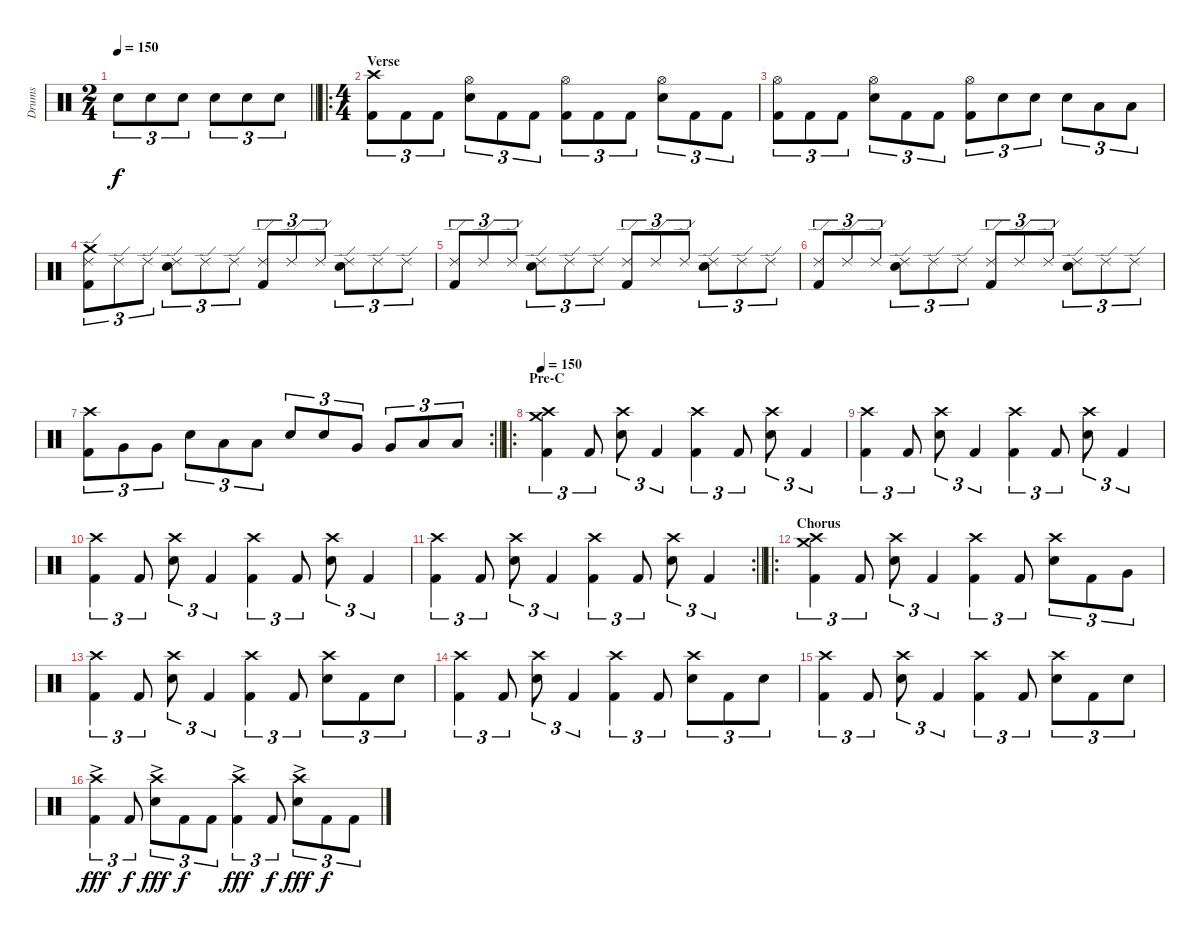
\track ("Drums" "Drums") {instrument percussion}
\staff {score}
\articulation defaults
\ts (2 4)
\tempo 150
\clef neutral
\barLineRight lightlight
\ks c "Electric Snare (hit)".8{tu (3 2) dy f} "Electric Snare (hit)".8{tu (3 2)} "Electric Snare (hit)".8{tu (3 2)} "Electric Snare (hit)".8{tu (3 2)} "Electric Snare (hit)".8{tu (3 2)} "Electric Snare (hit)".8{tu (3 2)}
|
\ro
\ts (4 4)
\section ("" "Verse")
("Crash high (hit)" "Kick (hit) 2").8{tu (3 2)} "Kick (hit) 2".8{tu (3 2)} "Kick (hit) 2".8{tu (3 2)} ("Hi-Hat (open)" "Electric Snare (hit)").8{tu (3 2)} "Kick (hit) 2".8{tu (3 2)} "Kick (hit) 2".8{tu (3 2)} ("Hi-Hat (open)" "Kick (hit) 2").8{tu (3 2)} "Kick (hit) 2".8{tu (3 2)} "Kick (hit) 2".8{tu (3 2)} ("Hi-Hat (open)" "Electric Snare (hit)").8{tu (3 2)} "Kick (hit) 2".8{tu (3 2)} "Kick (hit) 2".8{tu (3 2)} |
("Hi-Hat (open)" "Kick (hit) 2").8{tu (3 2)} "Kick (hit) 2".8{tu (3 2)} "Kick (hit) 2".8{tu (3 2)} ("Hi-Hat (open)" "Electric Snare (hit)").8{tu (3 2)} "Kick (hit) 2".8{tu (3 2)} "Kick (hit) 2".8{tu (3 2)} ("Hi-Hat (open)" "Kick (hit) 2").8{tu (3 2)} "Electric Snare (hit)".8{tu (3 2)} "Electric Snare (hit)".8{tu (3 2)} "Electric Snare (hit)".8{tu (3 2)} "Low Floor Tom (hit)".8{tu (3 2)} "Low Floor Tom (hit)".8{tu (3 2)} |
("Ride (edge) 2" "Crash medium (hit)" "Kick (hit) 2").8{tu (3 2)} "Ride (edge) 2".8{tu (3 2)} "Ride (edge) 2".8{tu (3 2)} ("Ride (edge) 2" "Electric Snare (hit)").8{tu (3 2)} "Ride (edge) 2".8{tu (3 2)} "Ride (edge) 2".8{tu (3 2)} ("Ride (edge) 2" "Kick (hit) 2").8{tu (3 2)} "Ride (edge) 2".8{tu (3 2)} "Ride (edge) 2".8{tu (3 2)} ("Ride (edge) 2" "Electric Snare (hit)").8{tu (3 2)} "Ride (edge) 2".8{tu (3 2)} "Ride (edge) 2".8{tu (3 2)} |
("Ride (edge) 2" "Kick (hit) 2").8{tu (3 2)} "Ride (edge) 2".8{tu (3 2)} "Ride (edge) 2".8{tu (3 2)} ("Ride (edge) 2" "Electric Snare (hit)").8{tu (3 2)} "Ride (edge) 2".8{tu (3 2)} "Ride (edge) 2".8{tu (3 2)} ("Ride (edge) 2" "Kick (hit) 2").8{tu (3 2)} "Ride (edge) 2".8{tu (3 2)} "Ride (edge) 2".8{tu (3 2)} ("Ride (edge) 2" "Electric Snare (hit)").8{tu (3 2)} "Ride (edge) 2".8{tu (3 2)} "Ride (edge) 2".8{tu (3 2)} |
("Ride (edge) 2" "Kick (hit) 2").8{tu (3 2)} "Ride (edge) 2".8{tu (3 2)} "Ride (edge) 2".8{tu (3 2)} ("Ride (edge) 2" "Electric Snare (hit)").8{tu (3 2)} "Ride (edge) 2".8{tu (3 2)} "Ride (edge) 2".8{tu (3 2)} ("Ride (edge) 2" "Kick (hit) 2").8{tu (3 2)} "Ride (edge) 2".8{tu (3 2)} "Ride (edge) 2".8{tu (3 2)} ("Ride (edge) 2" "Electric Snare (hit)").8{tu (3 2)} "Ride (edge) 2".8{tu (3 2)} "Ride (edge) 2".8{tu (3 2)} |
\rc 2
\barLineRight lightlight
("Crash high (hit)" "Kick (hit) 2").8{tu (3 2)} "Very Low Tom (hit)".8{tu (3 2)} "Very Low Tom (hit)".8{tu (3 2)} "Electric Snare (hit)".8{tu (3 2)} "Low Floor Tom (hit)".8{tu (3 2)} "Low Floor Tom (hit)".8{tu (3 2)} "Electric Snare (hit)".8{tu (3 2)} "Electric Snare (hit)".8{tu (3 2)} "Very Low Tom (hit)".8{tu (3 2)} "Very Low Tom (hit)".8{tu (3 2)} "Low Floor Tom (hit)".8{tu (3 2)} "Low Floor Tom (hit)".8{tu (3 2)} |
\ro
\section ("" "Pre-C")
\tempo 150
("Crash medium (hit)" "Crash high (hit)" "Kick (hit) 2").4{tu (3 2)} "Kick (hit) 2".8{tu (3 2)} ("Crash high (hit)" "Electric Snare (hit)").8{tu (3 2)} "Kick (hit) 2".4{tu (3 2)} ("Crash high (hit)" "Kick (hit) 2").4{tu (3 2)} "Kick (hit) 2".8{tu (3 2)} ("Electric Snare (hit)" "Crash high (hit)").8{tu (3 2)} "Kick (hit) 2".4{tu (3 2)} |
("Crash high (hit)" "Kick (hit) 2").4{tu (3 2)} "Kick (hit) 2".8{tu (3 2)} ("Crash high (hit)" "Electric Snare (hit)").8{tu (3 2)} "Kick (hit) 2".4{tu (3 2)} ("Crash high (hit)" "Kick (hit) 2").4{tu (3 2)} "Kick (hit) 2".8{tu (3 2)} ("Electric Snare (hit)" "Crash high (hit)").8{tu (3 2)} "Kick (hit) 2".4{tu (3 2)} |
("Crash high (hit)" "Kick (hit) 2").4{tu (3 2)} "Kick (hit) 2".8{tu (3 2)} ("Crash high (hit)" "Electric Snare (hit)").8{tu (3 2)} "Kick (hit) 2".4{tu (3 2)} ("Crash high (hit)" "Kick (hit) 2").4{tu (3 2)} "Kick (hit) 2".8{tu (3 2)} ("Electric Snare (hit)" "Crash high (hit)").8{tu (3 2)} "Kick (hit) 2".4{tu (3 2)} |
\rc 2
\barLineRight lightlight
("Crash high (hit)" "Kick (hit) 2").4{tu (3 2)} "Kick (hit) 2".8{tu (3 2)} ("Crash high (hit)" "Electric Snare (hit)").8{tu (3 2)} "Kick (hit) 2".4{tu (3 2)} ("Crash high (hit)" "Kick (hit) 2").4{tu (3 2)} "Kick (hit) 2".8{tu (3 2)} ("Electric Snare (hit)" "Crash high (hit)").8{tu (3 2)} "Kick (hit) 2".4{tu (3 2)} |
\ro
\section ("" "Chorus")
("Crash medium (hit)" "Crash high (hit)" "Kick (hit) 2").4{tu (3 2)} "Kick (hit) 2".8{tu (3 2)} ("Crash high (hit)" "Electric Snare (hit)").8{tu (3 2)} "Kick (hit) 2".4{tu (3 2)} ("Crash high (hit)" "Kick (hit) 2").4{tu (3 2)} "Kick (hit) 2".8{tu (3 2)} ("Electric Snare (hit)" "Crash high (hit)").8{tu (3 2)} "Kick (hit) 2".8{tu (3 2)} "Very Low Tom (hit)".8{tu (3 2)} |
("Crash high (hit)" "Kick (hit) 2").4{tu (3 2)} "Kick (hit) 2".8{tu (3 2)} ("Crash high (hit)" "Electric Snare (hit)").8{tu (3 2)} "Kick (hit) 2".4{tu (3 2)} ("Crash high (hit)" "Kick (hit) 2").4{tu (3 2)} "Kick (hit) 2".8{tu (3 2)} ("Electric Snare (hit)" "Crash high (hit)").8{tu (3 2)} "Kick (hit) 2".8{tu (3 2)} "Electric Snare (hit)".8{tu (3 2)} |
("Crash high (hit)" "Kick (hit) 2").4{tu (3 2)} "Kick (hit) 2".8{tu (3 2)} ("Crash high (hit)" "Electric Snare (hit)").8{tu (3 2)} "Kick (hit) 2".4{tu (3 2)} ("Crash high (hit)" "Kick (hit) 2").4{tu (3 2)} "Kick (hit) 2".8{tu (3 2)} ("Electric Snare (hit)" "Crash high (hit)").8{tu (3 2)} "Kick (hit) 2".8{tu (3 2)} "Electric Snare (hit)".8{tu (3 2)} |
("Crash high (hit)" "Kick (hit) 2").4{tu (3 2)} "Kick (hit) 2".8{tu (3 2)} ("Crash high (hit)" "Electric Snare (hit)").8{tu (3 2)} "Kick (hit) 2".4{tu (3 2)} ("Crash high (hit)" "Kick (hit) 2").4{tu (3 2)} "Kick (hit) 2".8{tu (3 2)} ("Electric Snare (hit)" "Crash high (hit)").8{tu (3 2)} "Kick (hit) 2".8{tu (3 2)} "Electric Snare (hit)".8{tu (3 2)} |
("Crash high (hit)"{ac} "Kick (hit) 2").4{tu (3 2) dy fff} "Kick (hit) 2".8{tu (3 2) dy f} ("Crash high (hit)"{ac} "Electric Snare (hit)").8{tu (3 2) dy fff} "Kick (hit) 2".8{tu (3 2) dy f} "Kick (hit) 2".8{tu (3 2)} ("Crash high (hit)"{ac} "Kick (hit) 2").4{tu (3 2) dy fff} "Kick (hit) 2".8{tu (3 2) dy f} ("Electric Snare (hit)" "Crash high (hit)"{ac}).8{tu (3 2) dy fff} "Kick (hit) 2".8{tu (3 2) dy f} "Kick (hit) 2".8{tu (3 2)}
